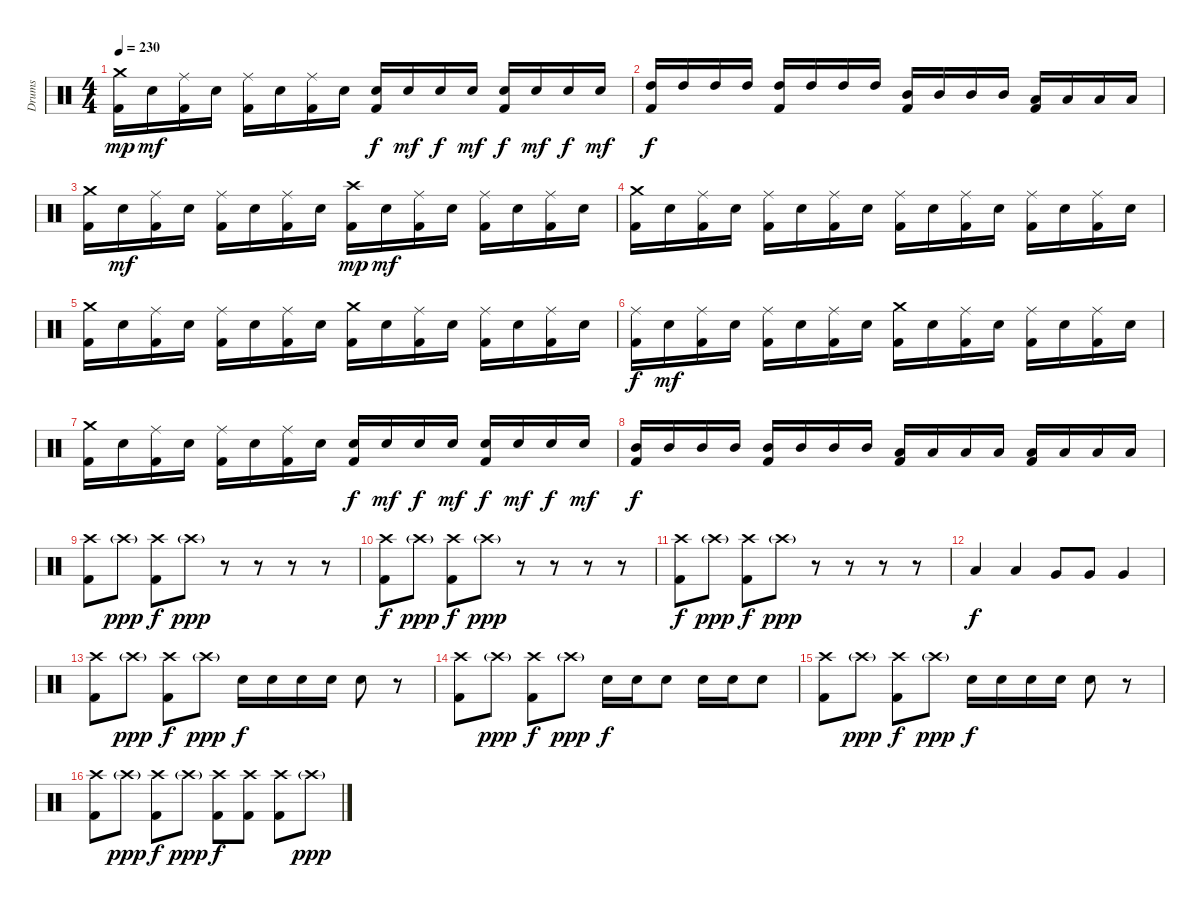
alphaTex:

\track ("Drums" "Drums") {instrument percussion}
\staff {score}
\articulation defaults
\ts (4 4)
\tempo 230
\clef neutral
\ks c
("Crash medium (hit)" "Kick (hit) 2").16{dy mp} "Electric Snare (hit)".16{dy mf} ("Ride (middle)" "Kick (hit) 2").16 "Electric Snare (hit)".16 ("Ride (middle)" "Kick (hit) 2").16 "Electric Snare (hit)".16 ("Ride (middle)" "Kick (hit) 2").16 "Electric Snare (hit)".16 ("Electric Snare (hit)" "Kick (hit) 2").16{dy f} "Electric Snare (hit)".16{dy mf} "Electric Snare (hit)".16{dy f} "Electric Snare (hit)".16{dy mf} ("Electric Snare (hit)" "Kick (hit) 2").16{dy f} "Electric Snare (hit)".16{dy mf} "Electric Snare (hit)".16{dy f} "Electric Snare (hit)".16{dy mf} |
("High Tom (hit)" "Kick (hit) 2").16{dy f} "High Tom (hit)".16 "High Tom (hit)".16 "High Tom (hit)".16 ("High Tom (hit)" "Kick (hit) 2").16 "High Tom (hit)".16 "High Tom (hit)".16 "High Tom (hit)".16 ("Mid Tom (hit)" "Kick (hit) 2").16 "Mid Tom (hit)".16 "Mid Tom (hit)".16 "Mid Tom (hit)".16 ("Low Tom (hit)" "Kick (hit) 2").16 "Low Tom (hit)".16 "Low Tom (hit)".16 "Low Tom (hit)".16 |
("Crash medium (hit)" "Kick (hit) 2").16 "Electric Snare (hit)".16{dy mf} ("Ride (middle)" "Kick (hit) 2").16 "Electric Snare (hit)".16 ("Ride (middle)" "Kick (hit) 2").16 "Electric Snare (hit)".16 ("Ride (middle)" "Kick (hit) 2").16 "Electric Snare (hit)".16 ("Crash high (hit)" "Kick (hit) 2").16{dy mp} "Electric Snare (hit)".16{dy mf} ("Ride (middle)" "Kick (hit) 2").16 "Electric Snare (hit)".16 ("Ride (middle)" "Kick (hit) 2").16 "Electric Snare (hit)".16 ("Ride (middle)" "Kick (hit) 2").16 "Electric Snare (hit)".16 |
("Crash medium (hit)" "Kick (hit) 2").16 "Electric Snare (hit)".16 ("Ride (middle)" "Kick (hit) 2").16 "Electric Snare (hit)".16 ("Ride (middle)" "Kick (hit) 2").16 "Electric Snare (hit)".16 ("Ride (middle)" "Kick (hit) 2").16 "Electric Snare (hit)".16 ("Ride (middle)" "Kick (hit) 2").16 "Electric Snare (hit)".16 ("Ride (middle)" "Kick (hit) 2").16 "Electric Snare (hit)".16 ("Ride (middle)" "Kick (hit) 2").16 "Electric Snare (hit)".16 ("Ride (middle)" "Kick (hit) 2").16 "Electric Snare (hit)".16 |
("Crash medium (hit)" "Kick (hit) 2").16 "Electric Snare (hit)".16 ("Ride (middle)" "Kick (hit) 2").16 "Electric Snare (hit)".16 ("Ride (middle)" "Kick (hit) 2").16 "Electric Snare (hit)".16 ("Ride (middle)" "Kick (hit) 2").16 "Electric Snare (hit)".16 ("Crash medium (hit)" "Kick (hit) 2").16 "Electric Snare (hit)".16 ("Ride (middle)" "Kick (hit) 2").16 "Electric Snare (hit)".16 ("Ride (middle)" "Kick (hit) 2").16 "Electric Snare (hit)".16 ("Ride (middle)" "Kick (hit) 2").16 "Electric Snare (hit)".16 |
("Ride (middle)" "Kick (hit) 2").16{dy f} "Electric Snare (hit)".16{dy mf} ("Ride (middle)" "Kick (hit) 2").16 "Electric Snare (hit)".16 ("Ride (middle)" "Kick (hit) 2").16 "Electric Snare (hit)".16 ("Ride (middle)" "Kick (hit) 2").16 "Electric Snare (hit)".16 ("Crash medium (hit)" "Kick (hit) 2").16 "Electric Snare (hit)".16 ("Ride (middle)" "Kick (hit) 2").16 "Electric Snare (hit)".16 ("Ride (middle)" "Kick (hit) 2").16 "Electric Snare (hit)".16 ("Ride (middle)" "Kick (hit) 2").16 "Electric Snare (hit)".16 |
("Crash medium (hit)" "Kick (hit) 2").16 "Electric Snare (hit)".16 ("Ride (middle)" "Kick (hit) 2").16 "Electric Snare (hit)".16 ("Ride (middle)" "Kick (hit) 2").16 "Electric Snare (hit)".16 ("Ride (middle)" "Kick (hit) 2").16 "Electric Snare (hit)".16 ("Electric Snare (hit)" "Kick (hit) 2").16{dy f} "Electric Snare (hit)".16{dy mf} "Electric Snare (hit)".16{dy f} "Electric Snare (hit)".16{dy mf} ("Electric Snare (hit)" "Kick (hit) 2").16{dy f} "Electric Snare (hit)".16{dy mf} "Electric Snare (hit)".16{dy f} "Electric Snare (hit)".16{dy mf} |
("Mid Tom (hit)" "Kick (hit) 2").16{dy f} "Mid Tom (hit)".16 "Mid Tom (hit)".16 "Mid Tom (hit)".16 ("Mid Tom (hit)" "Kick (hit) 2").16 "Mid Tom (hit)".16 "Mid Tom (hit)".16 "Mid Tom (hit)".16 ("Low Tom (hit)" "Kick (hit) 2").16 "Low Tom (hit)".16 "Low Tom (hit)".16 "Low Tom (hit)".16 ("Low Tom (hit)" "Kick (hit) 2").16 "Low Tom (hit)".16 "Low Tom (hit)".16 "Low Tom (hit)".16 |
("Crash high (hit)" "Kick (hit) 2").8 "Crash high (hit)"{g}.8{dy ppp} ("Crash high (hit)" "Kick (hit) 2").8{dy f} "Crash high (hit)"{g}.8{dy ppp} r.8 r.8 r.8 r.8 |
("Crash high (hit)" "Kick (hit) 2").8{dy f} "Crash high (hit)"{g}.8{dy ppp} ("Crash high (hit)" "Kick (hit) 2").8{dy f} "Crash high (hit)"{g}.8{dy ppp} r.8 r.8 r.8 r.8 |
("Crash high (hit)" "Kick (hit) 2").8{dy f} "Crash high (hit)"{g}.8{dy ppp} ("Crash high (hit)" "Kick (hit) 2").8{dy f} "Crash high (hit)"{g}.8{dy ppp} r.8 r.8 r.8 r.8 |
"Low Tom (hit)".4{dy f} "Low Tom (hit)".4 "Very Low Tom (hit)".8 "Very Low Tom (hit)".8 "Very Low Tom (hit)".4 |
("Crash high (hit)" "Kick (hit) 2").8 "Crash high (hit)"{g}.8{dy ppp} ("Crash high (hit)" "Kick (hit) 2").8{dy f} "Crash high (hit)"{g}.8{dy ppp} "Electric Snare (hit)".16{dy f} "Electric Snare (hit)".16 "Electric Snare (hit)".16 "Electric Snare (hit)".16 "Electric Snare (hit)".8 r.8 |
("Crash high (hit)" "Kick (hit) 2").8 "Crash high (hit)"{g}.8{dy ppp} ("Crash high (hit)" "Kick (hit) 2").8{dy f} "Crash high (hit)"{g}.8{dy ppp} "Electric Snare (hit)".16{dy f} "Electric Snare (hit)".16 "Electric Snare (hit)".8 "Electric Snare (hit)".16 "Electric Snare (hit)".16 "Electric Snare (hit)".8 |
("Crash high (hit)" "Kick (hit) 2").8 "Crash high (hit)"{g}.8{dy ppp} ("Crash high (hit)" "Kick (hit) 2").8{dy f} "Crash high (hit)"{g}.8{dy ppp} "Electric Snare (hit)".16{dy f} "Electric Snare (hit)".16 "Electric Snare (hit)".16 "Electric Snare (hit)".16 "Electric Snare (hit)".8 r.8 |
("Crash high (hit)" "Kick (hit) 2").8 "Crash high (hit)"{g}.8{dy ppp} ("Crash high (hit)" "Kick (hit) 2").8{dy f} "Crash high (hit)"{g}.8{dy ppp} ("Crash high (hit)" "Kick (hit) 2").8{dy f} ("Crash high (hit)" "Kick (hit) 2").8 ("Crash high (hit)" "Kick (hit) 2").8 "Crash high (hit)"{g}.8{dy ppp}
